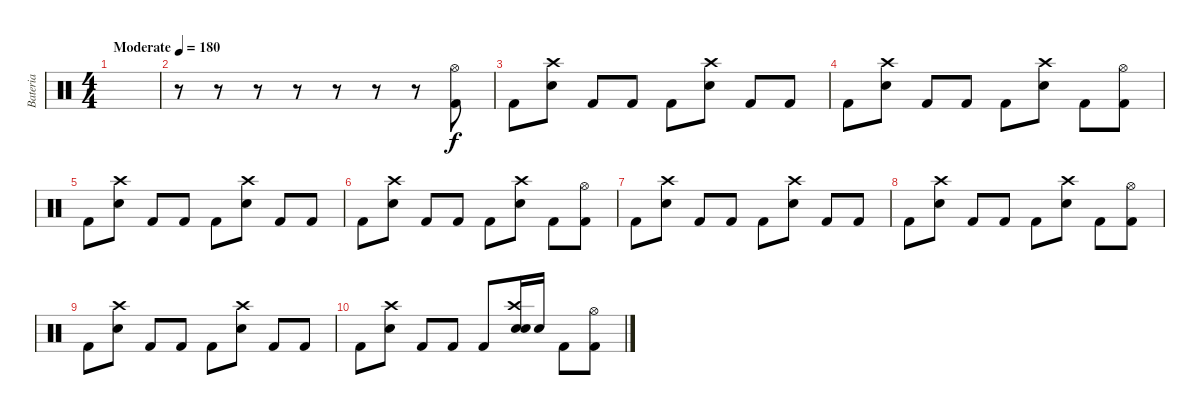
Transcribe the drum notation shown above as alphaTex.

\track ("Bateria" "Bateria") {instrument percussion}
\staff {score}
\articulation defaults
\ts (4 4)
\tempo (180 "Moderate")
\clef neutral
\ks c
|
r.8 r.8 r.8 r.8 r.8 r.8 r.8 ("Kick (hit) 2" "Hi-Hat (open)").8 |
"Kick (hit) 2".8 ("Electric Snare (hit)" "Crash high (hit)").8 "Kick (hit) 2".8 "Kick (hit) 2".8 "Kick (hit) 2".8 ("Electric Snare (hit)" "Crash high (hit)").8 "Kick (hit) 2".8 "Kick (hit) 2".8 |
"Kick (hit) 2".8 ("Electric Snare (hit)" "Crash high (hit)").8 "Kick (hit) 2".8 "Kick (hit) 2".8 "Kick (hit) 2".8 ("Electric Snare (hit)" "Crash high (hit)").8 "Kick (hit) 2".8 ("Kick (hit) 2" "Hi-Hat (open)").8 |
"Kick (hit) 2".8 ("Electric Snare (hit)" "Crash high (hit)").8 "Kick (hit) 2".8 "Kick (hit) 2".8 "Kick (hit) 2".8 ("Electric Snare (hit)" "Crash high (hit)").8 "Kick (hit) 2".8 "Kick (hit) 2".8 |
"Kick (hit) 2".8 ("Electric Snare (hit)" "Crash high (hit)").8 "Kick (hit) 2".8 "Kick (hit) 2".8 "Kick (hit) 2".8 ("Electric Snare (hit)" "Crash high (hit)").8 "Kick (hit) 2".8 ("Kick (hit) 2" "Hi-Hat (open)").8 |
"Kick (hit) 2".8 ("Electric Snare (hit)" "Crash high (hit)").8 "Kick (hit) 2".8 "Kick (hit) 2".8 "Kick (hit) 2".8 ("Electric Snare (hit)" "Crash high (hit)").8 "Kick (hit) 2".8 "Kick (hit) 2".8 |
"Kick (hit) 2".8 ("Electric Snare (hit)" "Crash high (hit)").8 "Kick (hit) 2".8 "Kick (hit) 2".8 "Kick (hit) 2".8 ("Electric Snare (hit)" "Crash high (hit)").8 "Kick (hit) 2".8 ("Kick (hit) 2" "Hi-Hat (open)").8 |
"Kick (hit) 2".8 ("Electric Snare (hit)" "Crash high (hit)").8 "Kick (hit) 2".8 "Kick (hit) 2".8 "Kick (hit) 2".8 ("Electric Snare (hit)" "Crash high (hit)").8 "Kick (hit) 2".8 "Kick (hit) 2".8 |
"Kick (hit) 2".8 ("Electric Snare (hit)" "Crash high (hit)").8 "Kick (hit) 2".8 "Kick (hit) 2".8 "Kick (hit) 2".8 ("Electric Snare (hit)" "Snare (hit) 2" "Crash high (hit)").16 "Electric Snare (hit)".16 "Kick (hit) 2".8 ("Kick (hit) 2" "Hi-Hat (open)").8
